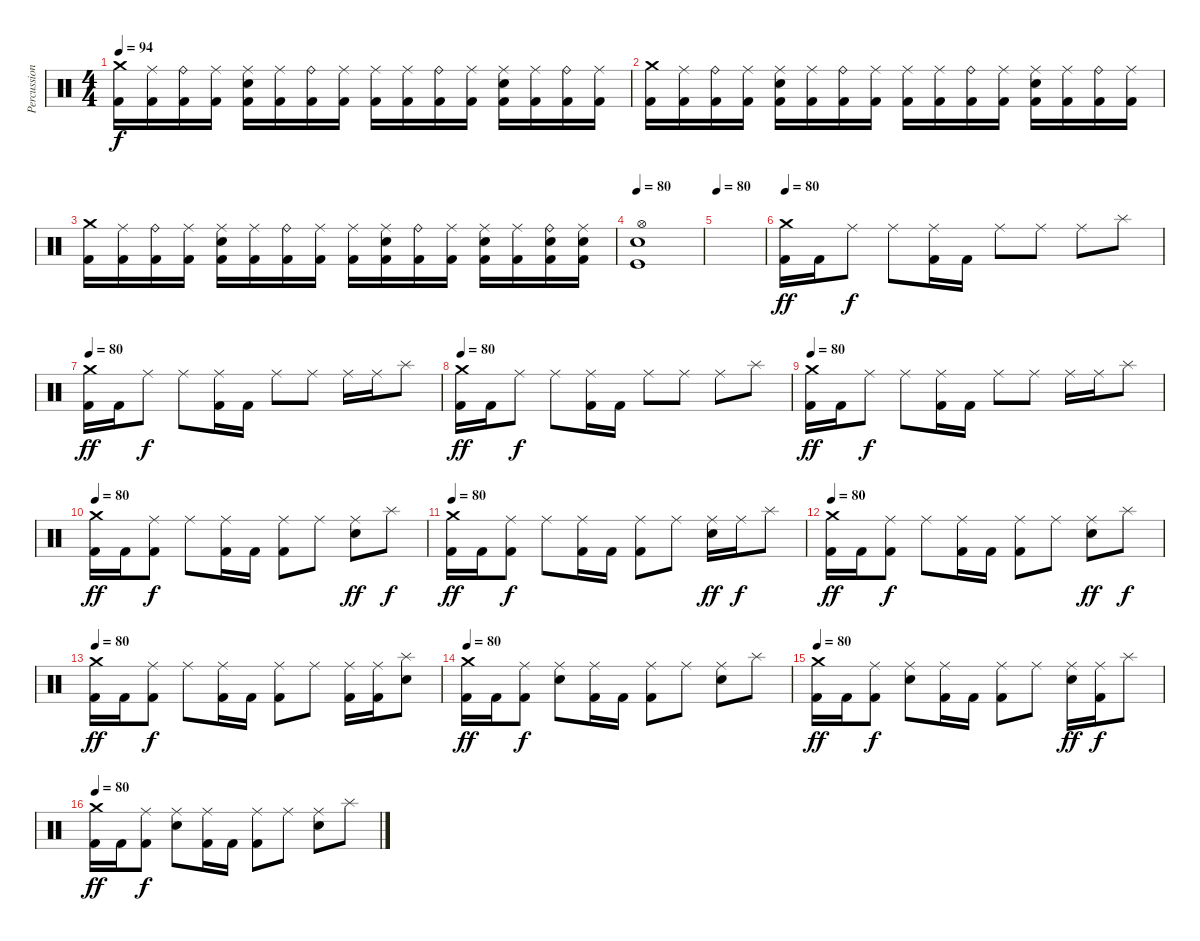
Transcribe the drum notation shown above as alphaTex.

\track ("Percussion" "Percussion") {instrument percussion}
\staff {score}
\articulation defaults
\ts (4 4)
\tempo 94
\clef neutral
\ks c
("Crash medium (hit)" "Kick (hit) 2").16{dy f} ("Ride (middle)" "Kick (hit) 2").16 ("Ride (bell)" "Kick (hit) 2").16 ("Ride (middle)" "Kick (hit) 2").16 ("Ride (middle)" "Electric Snare (hit)" "Kick (hit) 2").16 ("Ride (middle)" "Kick (hit) 2").16 ("Ride (bell)" "Kick (hit) 2").16 ("Ride (middle)" "Kick (hit) 2").16 ("Ride (middle)" "Kick (hit) 2").16 ("Ride (middle)" "Kick (hit) 2").16 ("Ride (bell)" "Kick (hit) 2").16 ("Ride (middle)" "Kick (hit) 2").16 ("Ride (middle)" "Electric Snare (hit)" "Kick (hit) 2").16 ("Ride (middle)" "Kick (hit) 2").16 ("Ride (bell)" "Kick (hit) 2").16 ("Ride (middle)" "Kick (hit) 2").16 |
("Crash medium (hit)" "Kick (hit) 2").16 ("Ride (middle)" "Kick (hit) 2").16 ("Ride (bell)" "Kick (hit) 2").16 ("Ride (middle)" "Kick (hit) 2").16 ("Ride (middle)" "Electric Snare (hit)" "Kick (hit) 2").16 ("Ride (middle)" "Kick (hit) 2").16 ("Ride (bell)" "Kick (hit) 2").16 ("Ride (middle)" "Kick (hit) 2").16 ("Ride (middle)" "Kick (hit) 2").16 ("Ride (middle)" "Kick (hit) 2").16 ("Ride (bell)" "Kick (hit) 2").16 ("Ride (middle)" "Kick (hit) 2").16 ("Ride (middle)" "Electric Snare (hit)" "Kick (hit) 2").16 ("Ride (middle)" "Kick (hit) 2").16 ("Ride (bell)" "Kick (hit) 2").16 ("Ride (middle)" "Kick (hit) 2").16 |
("Crash medium (hit)" "Kick (hit) 2").16 ("Ride (middle)" "Kick (hit) 2").16 ("Ride (bell)" "Kick (hit) 2").16 ("Ride (middle)" "Kick (hit) 2").16 ("Ride (middle)" "Electric Snare (hit)" "Kick (hit) 2").16 ("Ride (middle)" "Kick (hit) 2").16 ("Ride (bell)" "Kick (hit) 2").16 ("Ride (middle)" "Kick (hit) 2").16 ("Ride (middle)" "Kick (hit) 2").16 ("Ride (middle)" "Electric Snare (hit)" "Kick (hit) 2").16 ("Ride (bell)" "Kick (hit) 2").16 ("Ride (middle)" "Kick (hit) 2").16 ("Ride (middle)" "Electric Snare (hit)" "Kick (hit) 2").16 ("Ride (middle)" "Kick (hit) 2").16 ("Ride (bell)" "Electric Snare (hit)" "Kick (hit) 2").16 ("Ride (middle)" "Electric Snare (hit)" "Kick (hit) 2").16 |
\tempo 80
("Hi-Hat (open)" "Electric Snare (hit)" "Kick (hit)").1 |
\tempo 80
|
\tempo 80
("Crash medium (hit)" "Kick (hit) 2").16{dy ff} "Kick (hit) 2".16 "Ride (middle)".8{dy f} "Ride (middle)".8 ("Ride (middle)" "Kick (hit) 2").16 "Kick (hit) 2".16 "Ride (middle)".8 "Ride (middle)".8 "Ride (middle)".8 "Splash (hit)".8 |
\tempo 80
("Crash medium (hit)" "Kick (hit) 2").16{dy ff} "Kick (hit) 2".16 "Ride (middle)".8{dy f} "Ride (middle)".8 ("Ride (middle)" "Kick (hit) 2").16 "Kick (hit) 2".16 "Ride (middle)".8 "Ride (middle)".8 "Ride (middle)".16 "Ride (middle)".16 "Splash (hit)".8 |
\tempo 80
("Crash medium (hit)" "Kick (hit) 2").16{dy ff} "Kick (hit) 2".16 "Ride (middle)".8{dy f} "Ride (middle)".8 ("Ride (middle)" "Kick (hit) 2").16 "Kick (hit) 2".16 "Ride (middle)".8 "Ride (middle)".8 "Ride (middle)".8 "Splash (hit)".8 |
\tempo 80
("Crash medium (hit)" "Kick (hit) 2").16{dy ff} "Kick (hit) 2".16 "Ride (middle)".8{dy f} "Ride (middle)".8 ("Ride (middle)" "Kick (hit) 2").16 "Kick (hit) 2".16 "Ride (middle)".8 "Ride (middle)".8 "Ride (middle)".16 "Ride (middle)".16 "Splash (hit)".8 |
\tempo 80
("Crash medium (hit)" "Kick (hit) 2").16{dy ff} "Kick (hit) 2".16 ("Ride (middle)" "Kick (hit) 2").8{dy f} "Ride (middle)".8 ("Ride (middle)" "Kick (hit) 2").16 "Kick (hit) 2".16 ("Ride (middle)" "Kick (hit) 2").8 "Ride (middle)".8 ("Ride (middle)" "Electric Snare (hit)").8{dy ff} "Splash (hit)".8{dy f} |
\tempo 80
("Crash medium (hit)" "Kick (hit) 2").16{dy ff} "Kick (hit) 2".16 ("Ride (middle)" "Kick (hit) 2").8{dy f} "Ride (middle)".8 ("Ride (middle)" "Kick (hit) 2").16 "Kick (hit) 2".16 ("Ride (middle)" "Kick (hit) 2").8 "Ride (middle)".8 ("Ride (middle)" "Electric Snare (hit)").16{dy ff} "Ride (middle)".16{dy f} "Splash (hit)".8 |
\tempo 80
("Crash medium (hit)" "Kick (hit) 2").16{dy ff} "Kick (hit) 2".16 ("Ride (middle)" "Kick (hit) 2").8{dy f} "Ride (middle)".8 ("Ride (middle)" "Kick (hit) 2").16 "Kick (hit) 2".16 ("Ride (middle)" "Kick (hit) 2").8 "Ride (middle)".8 ("Ride (middle)" "Electric Snare (hit)").8{dy ff} "Splash (hit)".8{dy f} |
\tempo 80
("Crash medium (hit)" "Kick (hit) 2").16{dy ff} "Kick (hit) 2".16 ("Ride (middle)" "Kick (hit) 2").8{dy f} "Ride (middle)".8 ("Ride (middle)" "Kick (hit) 2").16 "Kick (hit) 2".16 ("Ride (middle)" "Kick (hit) 2").8 "Ride (middle)".8 ("Ride (middle)" "Kick (hit) 2").16 ("Ride (middle)" "Kick (hit) 2").16 ("Splash (hit)" "Electric Snare (hit)").8 |
\tempo 80
("Crash medium (hit)" "Kick (hit) 2").16{dy ff} "Kick (hit) 2".16 ("Ride (middle)" "Kick (hit) 2").8{dy f} ("Ride (middle)" "Electric Snare (hit)").8 ("Ride (middle)" "Kick (hit) 2").16 "Kick (hit) 2".16 ("Ride (middle)" "Kick (hit) 2").8 "Ride (middle)".8 ("Ride (middle)" "Electric Snare (hit)").8 "Splash (hit)".8 |
\tempo 80
("Crash medium (hit)" "Kick (hit) 2").16{dy ff} "Kick (hit) 2".16 ("Ride (middle)" "Kick (hit) 2").8{dy f} ("Ride (middle)" "Electric Snare (hit)").8 ("Ride (middle)" "Kick (hit) 2").16 "Kick (hit) 2".16 ("Ride (middle)" "Kick (hit) 2").8 "Ride (middle)".8 ("Ride (middle)" "Electric Snare (hit)").16{dy ff} ("Ride (middle)" "Kick (hit) 2").16{dy f} "Splash (hit)".8 |
\tempo 80
("Crash medium (hit)" "Kick (hit) 2").16{dy ff} "Kick (hit) 2".16 ("Ride (middle)" "Kick (hit) 2").8{dy f} ("Ride (middle)" "Electric Snare (hit)").8 ("Ride (middle)" "Kick (hit) 2").16 "Kick (hit) 2".16 ("Ride (middle)" "Kick (hit) 2").8 "Ride (middle)".8 ("Ride (middle)" "Electric Snare (hit)").8 "Splash (hit)".8
